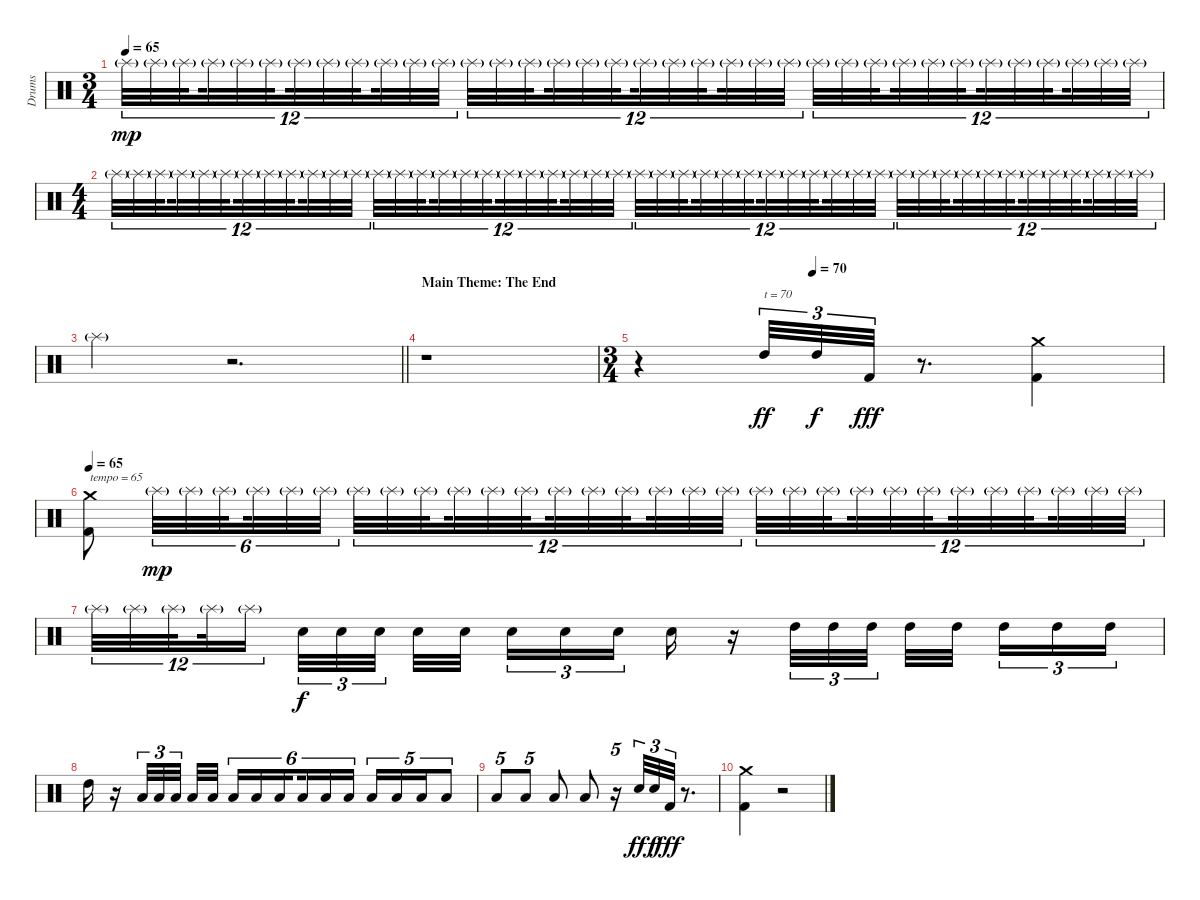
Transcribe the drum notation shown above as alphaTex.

\track ("Drums" "Drums") {instrument percussion}
\staff {score}
\articulation defaults
\ts (3 4)
\tempo 65
\clef neutral
\ks c "Splash (hit)"{g}.32{tu (12 8) dy mp} "Splash (hit)"{g}.32{tu (12 8)} "Splash (hit)"{g}.32{tu (12 8) beam splitsecondary} "Splash (hit)"{g}.32{tu (12 8)} "Splash (hit)"{g}.32{tu (12 8)} "Splash (hit)"{g}.32{tu (12 8) beam splitsecondary} "Splash (hit)"{g}.32{tu (12 8)} "Splash (hit)"{g}.32{tu (12 8)} "Splash (hit)"{g}.32{tu (12 8) beam splitsecondary} "Splash (hit)"{g}.32{tu (12 8)} "Splash (hit)"{g}.32{tu (12 8)} "Splash (hit)"{g}.32{tu (12 8)} "Splash (hit)"{g}.32{tu (12 8)} "Splash (hit)"{g}.32{tu (12 8)} "Splash (hit)"{g}.32{tu (12 8) beam splitsecondary} "Splash (hit)"{g}.32{tu (12 8)} "Splash (hit)"{g}.32{tu (12 8)} "Splash (hit)"{g}.32{tu (12 8) beam splitsecondary} "Splash (hit)"{g}.32{tu (12 8)} "Splash (hit)"{g}.32{tu (12 8)} "Splash (hit)"{g}.32{tu (12 8) beam splitsecondary} "Splash (hit)"{g}.32{tu (12 8)} "Splash (hit)"{g}.32{tu (12 8)} "Splash (hit)"{g}.32{tu (12 8)} "Splash (hit)"{g}.32{tu (12 8)} "Splash (hit)"{g}.32{tu (12 8)} "Splash (hit)"{g}.32{tu (12 8) beam splitsecondary} "Splash (hit)"{g}.32{tu (12 8)} "Splash (hit)"{g}.32{tu (12 8)} "Splash (hit)"{g}.32{tu (12 8) beam splitsecondary} "Splash (hit)"{g}.32{tu (12 8)} "Splash (hit)"{g}.32{tu (12 8)} "Splash (hit)"{g}.32{tu (12 8) beam splitsecondary} "Splash (hit)"{g}.32{tu (12 8)} "Splash (hit)"{g}.32{tu (12 8)} "Splash (hit)"{g}.32{tu (12 8)}
|
\ts (4 4)
"Splash (hit)"{g}.32{tu (12 8)} "Splash (hit)"{g}.32{tu (12 8)} "Splash (hit)"{g}.32{tu (12 8) beam splitsecondary} "Splash (hit)"{g}.32{tu (12 8)} "Splash (hit)"{g}.32{tu (12 8)} "Splash (hit)"{g}.32{tu (12 8) beam splitsecondary} "Splash (hit)"{g}.32{tu (12 8)} "Splash (hit)"{g}.32{tu (12 8)} "Splash (hit)"{g}.32{tu (12 8) beam splitsecondary} "Splash (hit)"{g}.32{tu (12 8)} "Splash (hit)"{g}.32{tu (12 8)} "Splash (hit)"{g}.32{tu (12 8)} "Splash (hit)"{g}.32{tu (12 8)} "Splash (hit)"{g}.32{tu (12 8)} "Splash (hit)"{g}.32{tu (12 8) beam splitsecondary} "Splash (hit)"{g}.32{tu (12 8)} "Splash (hit)"{g}.32{tu (12 8)} "Splash (hit)"{g}.32{tu (12 8) beam splitsecondary} "Splash (hit)"{g}.32{tu (12 8)} "Splash (hit)"{g}.32{tu (12 8)} "Splash (hit)"{g}.32{tu (12 8) beam splitsecondary} "Splash (hit)"{g}.32{tu (12 8)} "Splash (hit)"{g}.32{tu (12 8)} "Splash (hit)"{g}.32{tu (12 8)} "Splash (hit)"{g}.32{tu (12 8)} "Splash (hit)"{g}.32{tu (12 8)} "Splash (hit)"{g}.32{tu (12 8) beam splitsecondary} "Splash (hit)"{g}.32{tu (12 8)} "Splash (hit)"{g}.32{tu (12 8)} "Splash (hit)"{g}.32{tu (12 8) beam splitsecondary} "Splash (hit)"{g}.32{tu (12 8)} "Splash (hit)"{g}.32{tu (12 8)} "Splash (hit)"{g}.32{tu (12 8) beam splitsecondary} "Splash (hit)"{g}.32{tu (12 8)} "Splash (hit)"{g}.32{tu (12 8)} "Splash (hit)"{g}.32{tu (12 8)} "Splash (hit)"{g}.32{tu (12 8)} "Splash (hit)"{g}.32{tu (12 8)} "Splash (hit)"{g}.32{tu (12 8) beam splitsecondary} "Splash (hit)"{g}.32{tu (12 8)} "Splash (hit)"{g}.32{tu (12 8)} "Splash (hit)"{g}.32{tu (12 8) beam splitsecondary} "Splash (hit)"{g}.32{tu (12 8)} "Splash (hit)"{g}.32{tu (12 8)} "Splash (hit)"{g}.32{tu (12 8) beam splitsecondary} "Splash (hit)"{g}.32{tu (12 8)} "Splash (hit)"{g}.32{tu (12 8)} "Splash (hit)"{g}.32{tu (12 8)} |
\barLineRight lightlight "Splash (hit)"{g}.4
r.2{d} |
\section ("" "Main Theme: The End")
r.1 |
\ts (3 4)
\tempo (70 0.3333333333333333)
r.4 "High Tom (hit)".32{tu (3 2) txt "t = 70" dy ff} "High Tom (hit)".32{tu (3 2) dy f} "Kick (hit) 2".32{tu (3 2) dy fff} r.8{d} ("Crash medium (hit)" "Kick (hit) 2").4 |
\tempo 65
("Crash medium (hit)" "Kick (hit) 2").8{txt "tempo = 65"} "Splash (hit)"{g}.32{tu (6 4) dy mp} "Splash (hit)"{g}.32{tu (6 4)} "Splash (hit)"{g}.32{tu (6 4) beam splitsecondary} "Splash (hit)"{g}.32{tu (6 4)} "Splash (hit)"{g}.32{tu (6 4)} "Splash (hit)"{g}.32{tu (6 4)} "Splash (hit)"{g}.32{tu (12 8)} "Splash (hit)"{g}.32{tu (12 8)} "Splash (hit)"{g}.32{tu (12 8) beam splitsecondary} "Splash (hit)"{g}.32{tu (12 8)} "Splash (hit)"{g}.32{tu (12 8)} "Splash (hit)"{g}.32{tu (12 8) beam splitsecondary} "Splash (hit)"{g}.32{tu (12 8)} "Splash (hit)"{g}.32{tu (12 8)} "Splash (hit)"{g}.32{tu (12 8) beam splitsecondary} "Splash (hit)"{g}.32{tu (12 8)} "Splash (hit)"{g}.32{tu (12 8)} "Splash (hit)"{g}.32{tu (12 8)} "Splash (hit)"{g}.32{tu (12 8)} "Splash (hit)"{g}.32{tu (12 8)} "Splash (hit)"{g}.32{tu (12 8) beam splitsecondary} "Splash (hit)"{g}.32{tu (12 8)} "Splash (hit)"{g}.32{tu (12 8)} "Splash (hit)"{g}.32{tu (12 8) beam splitsecondary} "Splash (hit)"{g}.32{tu (12 8)} "Splash (hit)"{g}.32{tu (12 8)} "Splash (hit)"{g}.32{tu (12 8) beam splitsecondary} "Splash (hit)"{g}.32{tu (12 8)} "Splash (hit)"{g}.32{tu (12 8)} "Splash (hit)"{g}.32{tu (12 8)} |
"Splash (hit)"{g}.32{tu (12 8)} "Splash (hit)"{g}.32{tu (12 8)} "Splash (hit)"{g}.32{tu (12 8) beam splitsecondary} "Splash (hit)"{g}.32{tu (12 8)} "Splash (hit)"{g}.16{tu (12 8) beam splitsecondary} "Snare (hit) 2".32{tu (3 2) dy f} "Snare (hit) 2".32{tu (3 2)} "Snare (hit) 2".32{tu (3 2) beam splitsecondary} "Snare (hit) 2".32 "Snare (hit) 2".32 "Snare (hit) 2".16{tu (3 2)} "Snare (hit) 2".16{tu (3 2)} "Snare (hit) 2".16{tu (3 2) beam splitsecondary} "Snare (hit) 2".16 r.16 "High Tom (hit)".32{tu (3 2)} "High Tom (hit)".32{tu (3 2)} "High Tom (hit)".32{tu (3 2) beam splitsecondary} "High Tom (hit)".32 "High Tom (hit)".32{beam splitsecondary} "High Tom (hit)".16{tu (3 2)} "High Tom (hit)".16{tu (3 2)} "High Tom (hit)".16{tu (3 2)} |
"High Tom (hit)".16 r.16 "Low Tom (hit)".32{tu (3 2)} "Low Tom (hit)".32{tu (3 2)} "Low Tom (hit)".32{tu (3 2) beam splitsecondary} "Low Tom (hit)".32 "Low Tom (hit)".32 "Low Tom (hit)".16{tu (6 4)} "Low Tom (hit)".16{tu (6 4)} "Low Tom (hit)".16{tu (6 4) beam splitsecondary} "Low Tom (hit)".16{tu (6 4)} "Low Tom (hit)".16{tu (6 4)} "Low Tom (hit)".16{tu (6 4)} "Low Tom (hit)".16{tu (5 4)} "Low Tom (hit)".16{tu (5 4)} "Low Tom (hit)".16{tu (5 4)} "Low Tom (hit)".8{tu (5 4)} |
"Low Tom (hit)".8{tu (5 4)} "Low Tom (hit)".8{tu (5 4)} "Low Tom (hit)".8 "Low Tom (hit)".8 r.16{tu (5 4)} "Snare (hit) 2".32{tu (3 2) dy ff} "Snare (hit) 2".32{tu (3 2) dy f} "Kick (hit) 2".32{tu (3 2) dy fff} r.8{d} |
("Crash medium (hit)" "Kick (hit) 2").4 r.2
